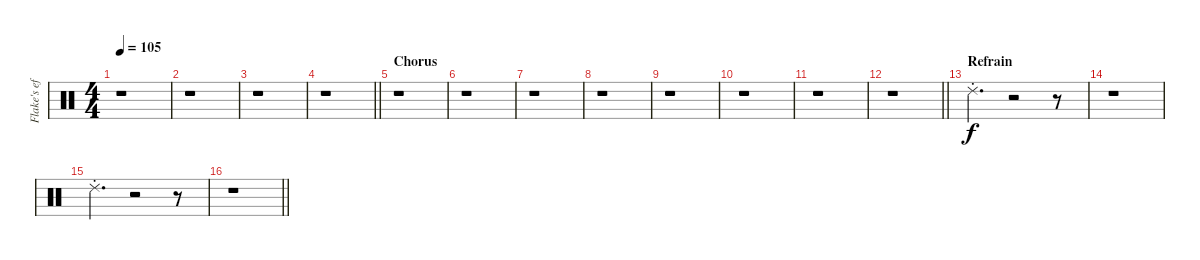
\track ("Flake's effects" "Flake's ef") {instrument percussion}
\staff {score}
\articulation defaults
\ts (4 4)
\tempo 105
\clef neutral
\ks c
r.1{dy f} |
r.1 |
r.1 |
\barLineRight lightlight
r.1 |
\section ("" "Chorus")
r.1 |
r.1 |
r.1 |
r.1 |
r.1 |
r.1 |
r.1 |
\barLineRight lightlight
r.1 |
\section ("" "Refrain")
"Ride (choke) 2".4{d} r.2 r.8 |
r.1 |
"Ride (choke) 2".4{d} r.2 r.8 |
\barLineRight lightlight
r.1
